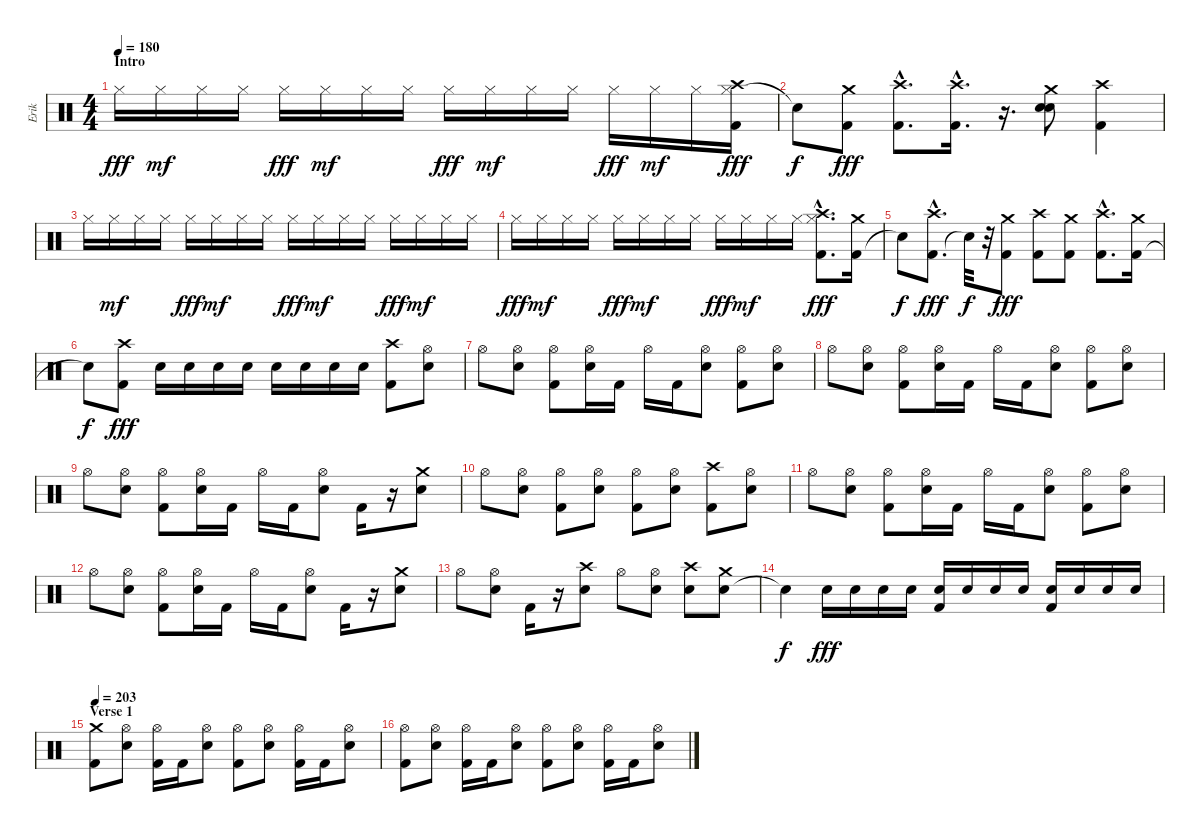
\track ("Erik" "Erik") {instrument percussion}
\staff {score}
\articulation defaults
\ts (4 4)
\section ("" "Intro")
\tempo 182
\tempo 180
\clef neutral
\ks c "Hi-Hat (closed)".16{dy fff} "Hi-Hat (closed)".16{dy mf} "Hi-Hat (closed)".16 "Hi-Hat (closed)".16 "Hi-Hat (closed)".16{dy fff} "Hi-Hat (closed)".16{dy mf} "Hi-Hat (closed)".16 "Hi-Hat (closed)".16 "Hi-Hat (closed)".16{dy fff} "Hi-Hat (closed)".16{dy mf} "Hi-Hat (closed)".16 "Hi-Hat (closed)".16 "Hi-Hat (closed)".16{dy fff} "Hi-Hat (closed)".16{dy mf} "Hi-Hat (closed)".16
("Hi-Hat (closed)" "Crash high (hit)" "Kick (hit) 2").16{dy fff} |
"Snare (hit)"{t}.8{dy f} ("Kick (hit) 2" "Crash medium (hit)").8{dy fff} ("Kick (hit) 2"{hac} "Crash high (hit)"{hac}).8{d} ("Kick (hit) 2"{hac} "Crash high (hit)"{hac}).16{d} r.16{d} ("Electric Snare (hit)" "Crash medium (hit)" "Electric Snare (hit)").8 ("Crash high (hit)" "Kick (hit) 2").4 |
"Hi-Hat (closed)".16 "Hi-Hat (closed)".16{dy mf} "Hi-Hat (closed)".16 "Hi-Hat (closed)".16 "Hi-Hat (closed)".16{dy fff} "Hi-Hat (closed)".16{dy mf} "Hi-Hat (closed)".16 "Hi-Hat (closed)".16 "Hi-Hat (closed)".16{dy fff} "Hi-Hat (closed)".16{dy mf} "Hi-Hat (closed)".16 "Hi-Hat (closed)".16 "Hi-Hat (closed)".16{dy fff} "Hi-Hat (closed)".16{dy mf} "Hi-Hat (closed)".16 "Hi-Hat (closed)".16 |
"Hi-Hat (closed)".16{dy fff} "Hi-Hat (closed)".16{dy mf} "Hi-Hat (closed)".16 "Hi-Hat (closed)".16 "Hi-Hat (closed)".16{dy fff} "Hi-Hat (closed)".16{dy mf} "Hi-Hat (closed)".16 "Hi-Hat (closed)".16 "Hi-Hat (closed)".16{dy fff} "Hi-Hat (closed)".16{dy mf} "Hi-Hat (closed)".16 "Hi-Hat (closed)".16 ("Hi-Hat (closed)"{hac} "Crash high (hit)"{hac} "Kick (hit) 2"{hac}).8{d dy fff} ("Kick (hit) 2" "Crash medium (hit)").16 |
"Snare (hit)"{t}.8{dy f} ("Kick (hit) 2"{hac} "Crash high (hit)"{hac}).8{d dy fff} "Snare (hit)"{t}.32{dy f} r.32 ("Kick (hit) 2" "Crash medium (hit)").8{dy fff} ("Kick (hit) 2" "Crash high (hit)").8 ("Kick (hit) 2" "Crash medium (hit)").8 ("Kick (hit) 2"{hac} "Crash high (hit)"{hac}).8{d} ("Kick (hit) 2" "Crash medium (hit)").16 |
"Snare (hit)"{t}.8{dy f} ("Kick (hit) 2" "Crash high (hit)").8{dy fff} "Electric Snare (hit)".16 "Electric Snare (hit)".16 "Electric Snare (hit)".16 "Electric Snare (hit)".16 "Electric Snare (hit)".16 "Electric Snare (hit)".16 "Electric Snare (hit)".16 "Electric Snare (hit)".16 ("Kick (hit) 2" "Crash high (hit)").8 ("Electric Snare (hit)" "Hi-Hat (open)").8 |
"Hi-Hat (open)".8 ("Electric Snare (hit)" "Hi-Hat (open)").8 ("Kick (hit) 2" "Hi-Hat (open)").8 ("Electric Snare (hit)" "Hi-Hat (open)").16 "Kick (hit) 2".16 "Hi-Hat (open)".16 "Kick (hit) 2".16 ("Electric Snare (hit)" "Hi-Hat (open)").8 ("Kick (hit) 2" "Hi-Hat (open)").8 ("Electric Snare (hit)" "Hi-Hat (open)").8 |
"Hi-Hat (open)".8 ("Electric Snare (hit)" "Hi-Hat (open)").8 ("Kick (hit) 2" "Hi-Hat (open)").8 ("Electric Snare (hit)" "Hi-Hat (open)").16 "Kick (hit) 2".16 "Hi-Hat (open)".16 "Kick (hit) 2".16 ("Electric Snare (hit)" "Hi-Hat (open)").8 ("Kick (hit) 2" "Hi-Hat (open)").8 ("Electric Snare (hit)" "Hi-Hat (open)").8 |
"Hi-Hat (open)".8 ("Electric Snare (hit)" "Hi-Hat (open)").8 ("Kick (hit) 2" "Hi-Hat (open)").8 ("Electric Snare (hit)" "Hi-Hat (open)").16 "Kick (hit) 2".16 "Hi-Hat (open)".16 "Kick (hit) 2".16 ("Electric Snare (hit)" "Hi-Hat (open)").8 "Kick (hit) 2".16 r.16 ("Electric Snare (hit)" "Crash medium (hit)").8 |
"Hi-Hat (open)".8 ("Electric Snare (hit)" "Hi-Hat (open)").8 ("Kick (hit) 2" "Hi-Hat (open)").8 ("Electric Snare (hit)" "Hi-Hat (open)").8 ("Kick (hit) 2" "Hi-Hat (open)").8 ("Electric Snare (hit)" "Hi-Hat (open)").8 ("Kick (hit) 2" "Crash high (hit)").8 ("Electric Snare (hit)" "Hi-Hat (open)").8 |
"Hi-Hat (open)".8 ("Electric Snare (hit)" "Hi-Hat (open)").8 ("Kick (hit) 2" "Hi-Hat (open)").8 ("Electric Snare (hit)" "Hi-Hat (open)").16 "Kick (hit) 2".16 "Hi-Hat (open)".16 "Kick (hit) 2".16 ("Electric Snare (hit)" "Hi-Hat (open)").8 ("Kick (hit) 2" "Hi-Hat (open)").8 ("Electric Snare (hit)" "Hi-Hat (open)").8 |
"Hi-Hat (open)".8 ("Electric Snare (hit)" "Hi-Hat (open)").8 ("Kick (hit) 2" "Hi-Hat (open)").8 ("Electric Snare (hit)" "Hi-Hat (open)").16 "Kick (hit) 2".16 "Hi-Hat (open)".16 "Kick (hit) 2".16 ("Electric Snare (hit)" "Hi-Hat (open)").8 "Kick (hit) 2".16 r.16 ("Electric Snare (hit)" "Crash medium (hit)").8 |
"Hi-Hat (open)".8 ("Electric Snare (hit)" "Hi-Hat (open)").8 "Kick (hit) 2".16 r.16 ("Electric Snare (hit)" "Crash high (hit)").8 "Hi-Hat (open)".8 ("Electric Snare (hit)" "Hi-Hat (open)").8 ("Electric Snare (hit)" "Crash high (hit)").8 ("Electric Snare (hit)" "Crash medium (hit)").8 |
"Snare (hit)"{t}.4{dy f} "Electric Snare (hit)".16{dy fff} "Electric Snare (hit)".16 "Electric Snare (hit)".16 "Electric Snare (hit)".16 ("Electric Snare (hit)" "Kick (hit) 2").16 "Electric Snare (hit)".16 "Electric Snare (hit)".16 "Electric Snare (hit)".16 ("Electric Snare (hit)" "Kick (hit) 2").16 "Electric Snare (hit)".16 "Electric Snare (hit)".16 "Electric Snare (hit)".16 |
\section ("" "Verse 1")
\tempo 203
("Kick (hit) 2" "Crash medium (hit)").8 ("Electric Snare (hit)" "Hi-Hat (open)").8 ("Kick (hit) 2" "Hi-Hat (open)").16 "Kick (hit) 2".16 ("Electric Snare (hit)" "Hi-Hat (open)").8 ("Kick (hit) 2" "Hi-Hat (open)").8 ("Electric Snare (hit)" "Hi-Hat (open)").8 ("Kick (hit) 2" "Hi-Hat (open)").16 "Kick (hit) 2".16 ("Electric Snare (hit)" "Hi-Hat (open)").8 |
("Kick (hit) 2" "Hi-Hat (open)").8 ("Electric Snare (hit)" "Hi-Hat (open)").8 ("Kick (hit) 2" "Hi-Hat (open)").16 "Kick (hit) 2".16 ("Electric Snare (hit)" "Hi-Hat (open)").8 ("Kick (hit) 2" "Hi-Hat (open)").8 ("Electric Snare (hit)" "Hi-Hat (open)").8 ("Kick (hit) 2" "Hi-Hat (open)").16 "Kick (hit) 2".16 ("Electric Snare (hit)" "Hi-Hat (open)").8
